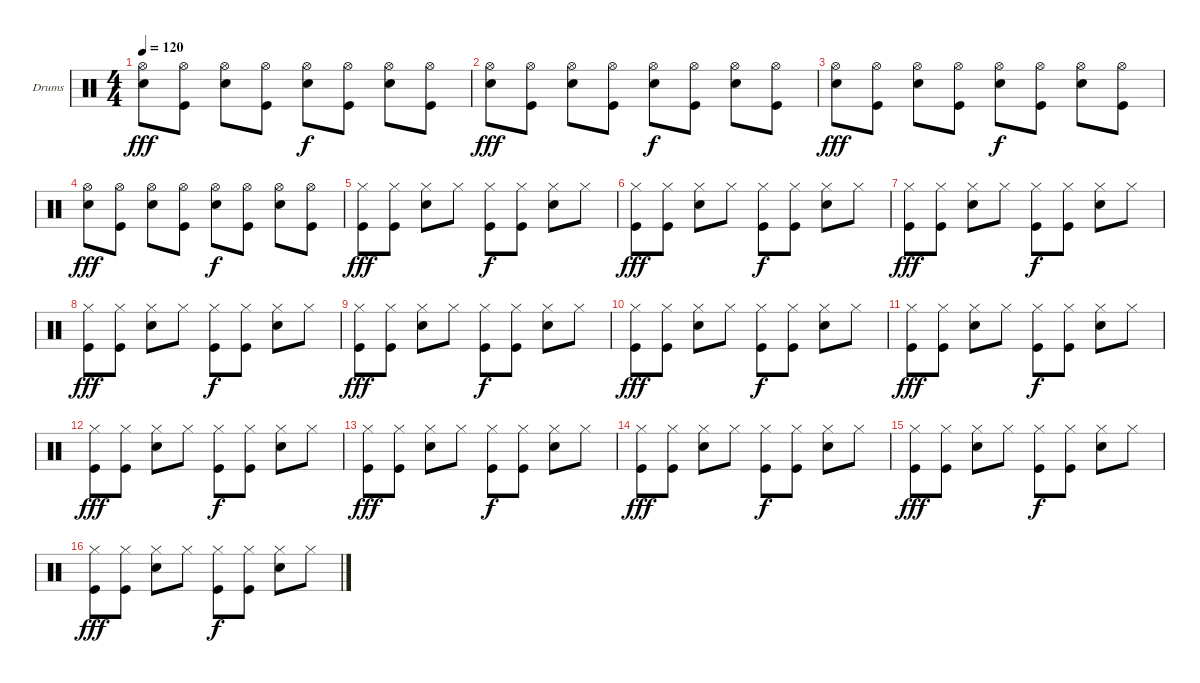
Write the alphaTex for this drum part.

\defaultSystemsLayout 4
\bracketExtendMode groupsimilarinstruments
\firstSystemTrackNameOrientation horizontal
\otherSystemsTrackNameOrientation horizontal
\track ("Drumkit" "Drums") {instrument percussion}
\staff {score}
\articulation defaults
\ts (4 4)
\tempo 120
\clef neutral
\ks c
("Hi-Hat (open)" "Snare (hit) 2").8{dy fff} ("Hi-Hat (open)" "Kick (hit)").8 ("Hi-Hat (open)" "Snare (hit) 2").8 ("Hi-Hat (open)" "Kick (hit)").8 ("Hi-Hat (open)" "Snare (hit) 2").8{dy f} ("Hi-Hat (open)" "Kick (hit)").8 ("Hi-Hat (open)" "Snare (hit) 2").8 ("Hi-Hat (open)" "Kick (hit)").8 |
("Hi-Hat (open)" "Snare (hit) 2").8{dy fff} ("Hi-Hat (open)" "Kick (hit)").8 ("Hi-Hat (open)" "Snare (hit) 2").8 ("Hi-Hat (open)" "Kick (hit)").8 ("Hi-Hat (open)" "Snare (hit) 2").8{dy f} ("Hi-Hat (open)" "Kick (hit)").8 ("Hi-Hat (open)" "Snare (hit) 2").8 ("Hi-Hat (open)" "Kick (hit)").8 |
("Hi-Hat (open)" "Snare (hit) 2").8{dy fff} ("Hi-Hat (open)" "Kick (hit)").8 ("Hi-Hat (open)" "Snare (hit) 2").8 ("Hi-Hat (open)" "Kick (hit)").8 ("Hi-Hat (open)" "Snare (hit) 2").8{dy f} ("Hi-Hat (open)" "Kick (hit)").8 ("Hi-Hat (open)" "Snare (hit) 2").8 ("Hi-Hat (open)" "Kick (hit)").8 |
("Hi-Hat (open)" "Snare (hit) 2").8{dy fff} ("Hi-Hat (open)" "Kick (hit)").8 ("Hi-Hat (open)" "Snare (hit) 2").8 ("Hi-Hat (open)" "Kick (hit)").8 ("Hi-Hat (open)" "Snare (hit) 2").8{dy f} ("Hi-Hat (open)" "Kick (hit)").8 ("Hi-Hat (open)" "Snare (hit) 2").8 ("Hi-Hat (open)" "Kick (hit)").8 |
("Hi-Hat (closed)" "Kick (hit)").8{dy fff} ("Hi-Hat (closed)" "Kick (hit)").8 ("Hi-Hat (closed)" "Snare (hit) 2").8 "Hi-Hat (closed)".8 ("Hi-Hat (closed)" "Kick (hit)").8{dy f} ("Hi-Hat (closed)" "Kick (hit)").8 ("Hi-Hat (closed)" "Snare (hit) 2").8 "Hi-Hat (closed)".8 |
("Hi-Hat (closed)" "Kick (hit)").8{dy fff} ("Hi-Hat (closed)" "Kick (hit)").8 ("Hi-Hat (closed)" "Snare (hit) 2").8 "Hi-Hat (closed)".8 ("Hi-Hat (closed)" "Kick (hit)").8{dy f} ("Hi-Hat (closed)" "Kick (hit)").8 ("Hi-Hat (closed)" "Snare (hit) 2").8 "Hi-Hat (closed)".8 |
("Hi-Hat (closed)" "Kick (hit)").8{dy fff} ("Hi-Hat (closed)" "Kick (hit)").8 ("Hi-Hat (closed)" "Snare (hit) 2").8 "Hi-Hat (closed)".8 ("Hi-Hat (closed)" "Kick (hit)").8{dy f} ("Hi-Hat (closed)" "Kick (hit)").8 ("Hi-Hat (closed)" "Snare (hit) 2").8 "Hi-Hat (closed)".8 |
("Hi-Hat (closed)" "Kick (hit)").8{dy fff} ("Hi-Hat (closed)" "Kick (hit)").8 ("Hi-Hat (closed)" "Snare (hit) 2").8 "Hi-Hat (closed)".8 ("Hi-Hat (closed)" "Kick (hit)").8{dy f} ("Hi-Hat (closed)" "Kick (hit)").8 ("Hi-Hat (closed)" "Snare (hit) 2").8 "Hi-Hat (closed)".8 |
("Hi-Hat (closed)" "Kick (hit)").8{dy fff} ("Hi-Hat (closed)" "Kick (hit)").8 ("Hi-Hat (closed)" "Snare (hit) 2").8 "Hi-Hat (closed)".8 ("Hi-Hat (closed)" "Kick (hit)").8{dy f} ("Hi-Hat (closed)" "Kick (hit)").8 ("Hi-Hat (closed)" "Snare (hit) 2").8 "Hi-Hat (closed)".8 |
("Hi-Hat (closed)" "Kick (hit)").8{dy fff} ("Hi-Hat (closed)" "Kick (hit)").8 ("Hi-Hat (closed)" "Snare (hit) 2").8 "Hi-Hat (closed)".8 ("Hi-Hat (closed)" "Kick (hit)").8{dy f} ("Hi-Hat (closed)" "Kick (hit)").8 ("Hi-Hat (closed)" "Snare (hit) 2").8 "Hi-Hat (closed)".8 |
("Hi-Hat (closed)" "Kick (hit)").8{dy fff} ("Hi-Hat (closed)" "Kick (hit)").8 ("Hi-Hat (closed)" "Snare (hit) 2").8 "Hi-Hat (closed)".8 ("Hi-Hat (closed)" "Kick (hit)").8{dy f} ("Hi-Hat (closed)" "Kick (hit)").8 ("Hi-Hat (closed)" "Snare (hit) 2").8 "Hi-Hat (closed)".8 |
("Hi-Hat (closed)" "Kick (hit)").8{dy fff} ("Hi-Hat (closed)" "Kick (hit)").8 ("Hi-Hat (closed)" "Snare (hit) 2").8 "Hi-Hat (closed)".8 ("Hi-Hat (closed)" "Kick (hit)").8{dy f} ("Hi-Hat (closed)" "Kick (hit)").8 ("Hi-Hat (closed)" "Snare (hit) 2").8 "Hi-Hat (closed)".8 |
("Hi-Hat (closed)" "Kick (hit)").8{dy fff} ("Hi-Hat (closed)" "Kick (hit)").8 ("Hi-Hat (closed)" "Snare (hit) 2").8 "Hi-Hat (closed)".8 ("Hi-Hat (closed)" "Kick (hit)").8{dy f} ("Hi-Hat (closed)" "Kick (hit)").8 ("Hi-Hat (closed)" "Snare (hit) 2").8 "Hi-Hat (closed)".8 |
("Hi-Hat (closed)" "Kick (hit)").8{dy fff} ("Hi-Hat (closed)" "Kick (hit)").8 ("Hi-Hat (closed)" "Snare (hit) 2").8 "Hi-Hat (closed)".8 ("Hi-Hat (closed)" "Kick (hit)").8{dy f} ("Hi-Hat (closed)" "Kick (hit)").8 ("Hi-Hat (closed)" "Snare (hit) 2").8 "Hi-Hat (closed)".8 |
("Hi-Hat (closed)" "Kick (hit)").8{dy fff} ("Hi-Hat (closed)" "Kick (hit)").8 ("Hi-Hat (closed)" "Snare (hit) 2").8 "Hi-Hat (closed)".8 ("Hi-Hat (closed)" "Kick (hit)").8{dy f} ("Hi-Hat (closed)" "Kick (hit)").8 ("Hi-Hat (closed)" "Snare (hit) 2").8 "Hi-Hat (closed)".8 |
("Hi-Hat (closed)" "Kick (hit)").8{dy fff} ("Hi-Hat (closed)" "Kick (hit)").8 ("Hi-Hat (closed)" "Snare (hit) 2").8 "Hi-Hat (closed)".8 ("Hi-Hat (closed)" "Kick (hit)").8{dy f} ("Hi-Hat (closed)" "Kick (hit)").8 ("Hi-Hat (closed)" "Snare (hit) 2").8 "Hi-Hat (closed)".8
